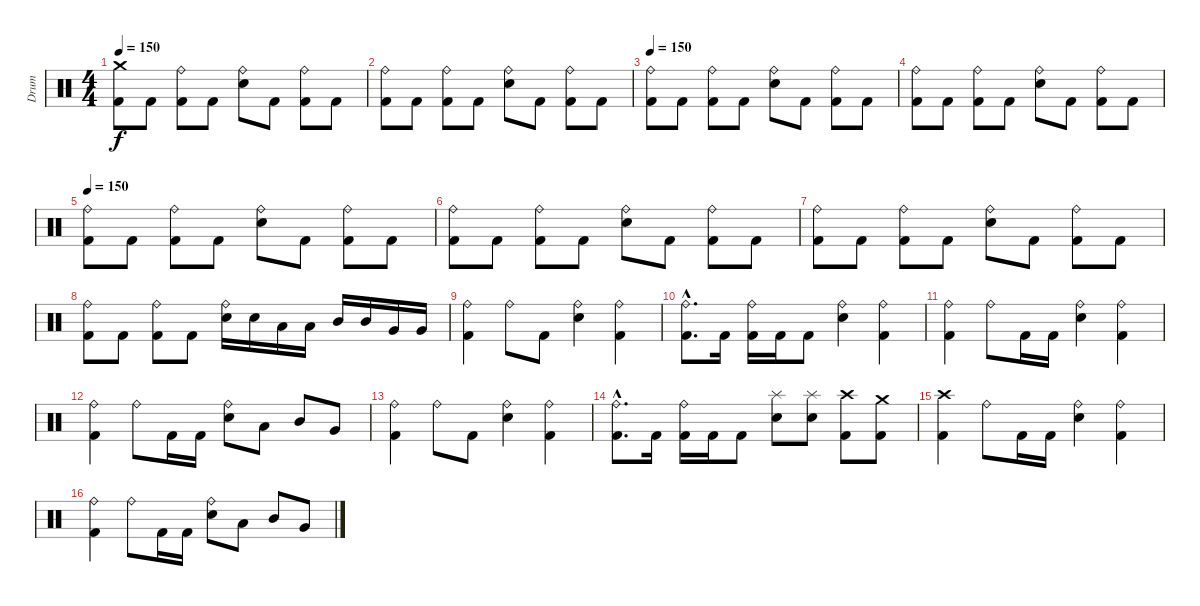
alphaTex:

\track ("Drum" "Drum") {instrument percussion}
\staff {score}
\articulation defaults
\ts (4 4)
\tempo 150
\clef neutral
\ks c
("Crash medium (hit)" "Kick (hit) 2").8{dy f} "Kick (hit) 2".8 ("Ride (bell)" "Kick (hit) 2").8 "Kick (hit) 2".8 ("Ride (bell)" "Electric Snare (hit)").8 "Kick (hit) 2".8 ("Ride (bell)" "Kick (hit) 2").8 "Kick (hit) 2".8 |
("Ride (bell)" "Kick (hit) 2").8 "Kick (hit) 2".8 ("Ride (bell)" "Kick (hit) 2").8 "Kick (hit) 2".8 ("Ride (bell)" "Electric Snare (hit)").8 "Kick (hit) 2".8 ("Ride (bell)" "Kick (hit) 2").8 "Kick (hit) 2".8 |
\tempo 150
("Ride (bell)" "Kick (hit) 2").8 "Kick (hit) 2".8 ("Ride (bell)" "Kick (hit) 2").8 "Kick (hit) 2".8 ("Ride (bell)" "Electric Snare (hit)").8 "Kick (hit) 2".8 ("Ride (bell)" "Kick (hit) 2").8 "Kick (hit) 2".8 |
("Ride (bell)" "Kick (hit) 2").8 "Kick (hit) 2".8 ("Ride (bell)" "Kick (hit) 2").8 "Kick (hit) 2".8 ("Ride (bell)" "Electric Snare (hit)").8 "Kick (hit) 2".8 ("Ride (bell)" "Kick (hit) 2").8 "Kick (hit) 2".8 |
\tempo 150
("Ride (bell)" "Kick (hit) 2").8 "Kick (hit) 2".8 ("Ride (bell)" "Kick (hit) 2").8 "Kick (hit) 2".8 ("Ride (bell)" "Electric Snare (hit)").8 "Kick (hit) 2".8 ("Ride (bell)" "Kick (hit) 2").8 "Kick (hit) 2".8 |
("Ride (bell)" "Kick (hit) 2").8 "Kick (hit) 2".8 ("Ride (bell)" "Kick (hit) 2").8 "Kick (hit) 2".8 ("Ride (bell)" "Electric Snare (hit)").8 "Kick (hit) 2".8 ("Ride (bell)" "Kick (hit) 2").8 "Kick (hit) 2".8 |
("Ride (bell)" "Kick (hit) 2").8 "Kick (hit) 2".8 ("Ride (bell)" "Kick (hit) 2").8 "Kick (hit) 2".8 ("Ride (bell)" "Electric Snare (hit)").8 "Kick (hit) 2".8 ("Ride (bell)" "Kick (hit) 2").8 "Kick (hit) 2".8 |
("Ride (bell)" "Kick (hit) 2").8 "Kick (hit) 2".8 ("Ride (bell)" "Kick (hit) 2").8 "Kick (hit) 2".8 ("Ride (bell)" "Electric Snare (hit)").16 "Electric Snare (hit)".16 "Low Tom (hit)".16 "Low Tom (hit)".16 "Mid Tom (hit)".16 "Mid Tom (hit)".16 "Very Low Tom (hit)".16 "Very Low Tom (hit)".16 |
("Ride (bell)" "Kick (hit) 2").4 "Ride (bell)".8 "Kick (hit) 2".8 ("Ride (bell)" "Electric Snare (hit)").4 ("Ride (bell)" "Kick (hit) 2").4 |
("Ride (bell)"{hac} "Kick (hit) 2"{hac}).8{d} "Kick (hit) 2".16 ("Ride (bell)" "Kick (hit) 2").16 "Kick (hit) 2".16 "Kick (hit) 2".8 ("Ride (bell)" "Electric Snare (hit)").4 ("Ride (bell)" "Kick (hit) 2").4 |
("Ride (bell)" "Kick (hit) 2").4 "Ride (bell)".8 "Kick (hit) 2".16 "Kick (hit) 2".16 ("Ride (bell)" "Electric Snare (hit)").4 ("Ride (bell)" "Kick (hit) 2").4 |
("Ride (bell)" "Kick (hit) 2").4 "Ride (bell)".8 "Kick (hit) 2".16 "Kick (hit) 2".16 ("Ride (bell)" "Electric Snare (hit)").8 "Low Tom (hit)".8 "Mid Tom (hit)".8 "Very Low Tom (hit)".8 |
("Ride (bell)" "Kick (hit) 2").4 "Ride (bell)".8 "Kick (hit) 2".8 ("Ride (bell)" "Electric Snare (hit)").4 ("Ride (bell)" "Kick (hit) 2").4 |
("Ride (bell)"{hac} "Kick (hit) 2"{hac}).8{d} "Kick (hit) 2".16 ("Ride (bell)" "Kick (hit) 2").16 "Kick (hit) 2".16 "Kick (hit) 2".8 ("Splash (hit)" "Electric Snare (hit)").8 ("Splash (hit)" "Electric Snare (hit)").8 ("Kick (hit) 2" "Crash high (hit)").8 ("Kick (hit) 2" "Crash medium (hit)").8 |
("Crash high (hit)" "Kick (hit) 2").4 "Ride (bell)".8 "Kick (hit) 2".16 "Kick (hit) 2".16 ("Ride (bell)" "Electric Snare (hit)").4 ("Ride (bell)" "Kick (hit) 2").4 |
("Ride (bell)" "Kick (hit) 2").4 "Ride (bell)".8 "Kick (hit) 2".16 "Kick (hit) 2".16 ("Ride (bell)" "Electric Snare (hit)").8 "Low Tom (hit)".8 "Mid Tom (hit)".8 "Very Low Tom (hit)".8
